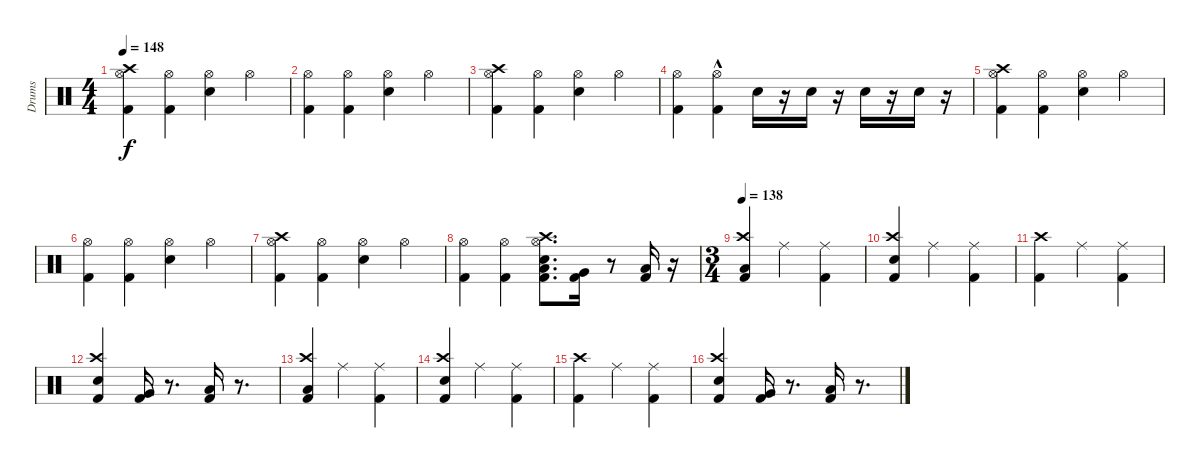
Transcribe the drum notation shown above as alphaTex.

\track ("Drums" "Drums") {instrument percussion}
\staff {score}
\articulation defaults
\ts (4 4)
\tempo 148
\clef neutral
\ks c
("Hi-Hat (open)" "Kick (hit) 2" "Crash high (hit)").4{dy f} ("Kick (hit) 2" "Hi-Hat (open)").4 ("Hi-Hat (open)" "Snare (hit) 2").4 "Hi-Hat (open)".4 |
("Hi-Hat (open)" "Kick (hit) 2").4 ("Hi-Hat (open)" "Kick (hit) 2").4 ("Hi-Hat (open)" "Snare (hit) 2").4 "Hi-Hat (open)".4 |
("Crash high (hit)" "Hi-Hat (open)" "Kick (hit) 2").4 ("Hi-Hat (open)" "Kick (hit) 2").4 ("Hi-Hat (open)" "Snare (hit) 2").4 "Hi-Hat (open)".4 |
("Hi-Hat (open)" "Kick (hit) 2").4 ("Hi-Hat (open)"{hac} "Kick (hit) 2").4 "Snare (hit) 2".16 r.16 "Snare (hit) 2".16 r.16 "Snare (hit) 2".16 r.16 "Snare (hit) 2".16 r.16 |
("Kick (hit) 2" "Hi-Hat (open)" "Crash high (hit)").4 ("Kick (hit) 2" "Hi-Hat (open)").4 ("Snare (hit) 2" "Hi-Hat (open)").4 "Hi-Hat (open)".4 |
("Hi-Hat (open)" "Kick (hit) 2").4 ("Kick (hit) 2" "Hi-Hat (open)").4 ("Hi-Hat (open)" "Snare (hit) 2").4 "Hi-Hat (open)".4 |
("Hi-Hat (open)" "Kick (hit) 2" "Crash high (hit)").4 ("Hi-Hat (open)" "Kick (hit) 2").4 ("Hi-Hat (open)" "Snare (hit) 2").4 "Hi-Hat (open)".4 |
("Hi-Hat (open)" "Kick (hit) 2").4 ("Hi-Hat (open)" "Kick (hit) 2").4 ("Snare (hit) 2" "Kick (hit) 2" "Low Tom (hit)" "Hi-Hat (open)" "Crash high (hit)").8{d} ("Very Low Tom (hit)" "Kick (hit) 2").16 r.8 ("Kick (hit) 2" "Low Floor Tom (hit)").16 r.16 |
\ts (3 4)
\tempo 138
("Kick (hit) 2" "Low Floor Tom (hit)" "Crash high (hit)").4 "Ride (middle)".4 ("Ride (middle)" "Kick (hit) 2").4 |
("Kick (hit) 2" "Snare (hit) 2" "Crash high (hit)").4 "Ride (middle)".4 ("Kick (hit) 2" "Ride (middle)").4 |
("Kick (hit) 2" "Crash high (hit)").4 "Ride (middle)".4 ("Kick (hit) 2" "Ride (middle)").4 |
("Snare (hit) 2" "Kick (hit) 2" "Crash high (hit)").4 ("Very Low Tom (hit)" "Kick (hit) 2").16 r.8{d} ("Low Floor Tom (hit)" "Kick (hit) 2").16 r.8{d} |
("Kick (hit) 2" "Low Floor Tom (hit)" "Crash high (hit)").4 "Ride (middle)".4 ("Ride (middle)" "Kick (hit) 2").4 |
("Kick (hit) 2" "Snare (hit) 2" "Crash high (hit)").4 "Ride (middle)".4 ("Kick (hit) 2" "Ride (middle)").4 |
("Kick (hit) 2" "Crash high (hit)").4 "Ride (middle)".4 ("Kick (hit) 2" "Ride (middle)").4 |
("Snare (hit) 2" "Kick (hit) 2" "Crash high (hit)").4 ("Very Low Tom (hit)" "Kick (hit) 2").16 r.8{d} ("Low Floor Tom (hit)" "Kick (hit) 2").16 r.8{d}
